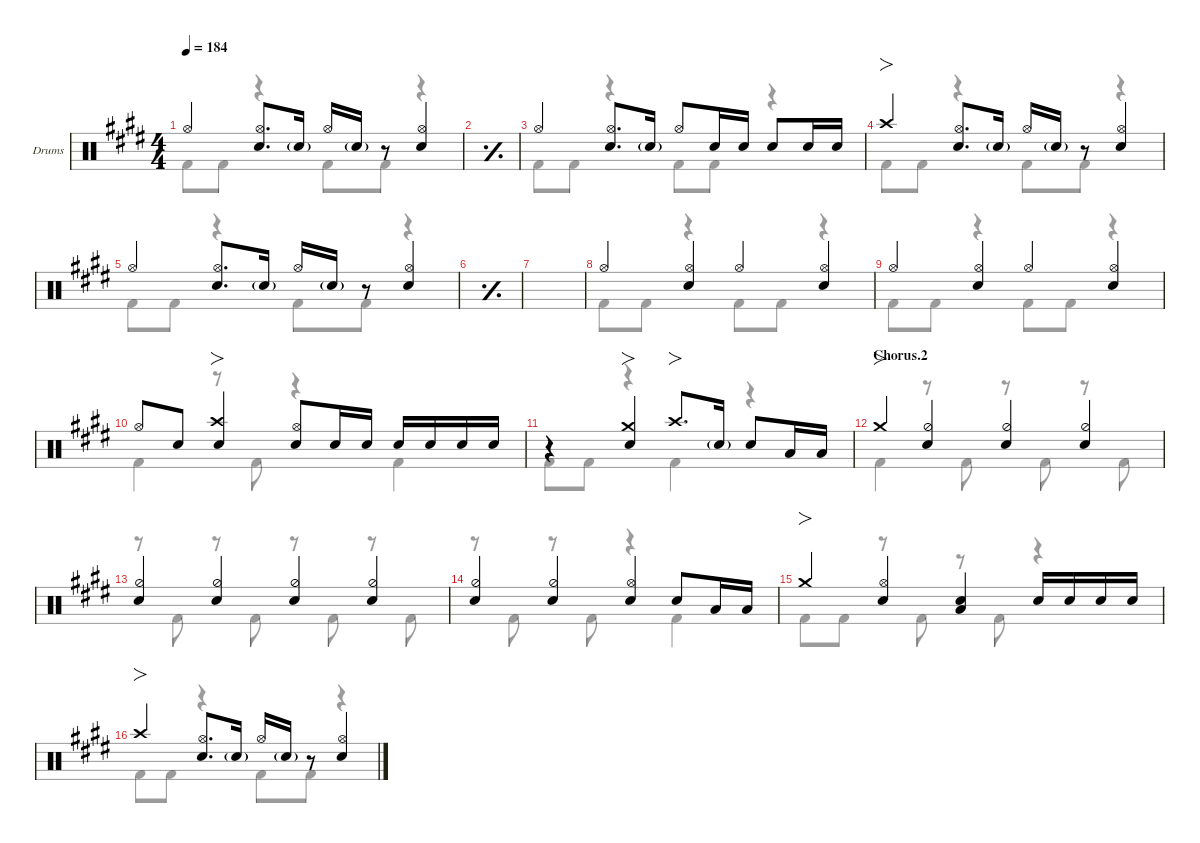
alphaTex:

\defaultSystemsLayout 4
\hideDynamics
\bracketExtendMode nobrackets
\firstSystemTrackNameOrientation horizontal
\track ("Drums" "Drums") {defaultSystemsLayout 4 instrument percussion}
\staff {score}
\articulation defaults
\voice
\ts (4 4)
\tempo 184
\clef neutral
\ks e "Hi-Hat (open)"{acc forcenatural}.4{dy f}
("Hi-Hat (open)"{acc forcenatural} "Snare (hit) 2"{acc forcenatural}).8{d} "Snare (hit) 2"{g acc forcenatural}.16{dy mf} "Hi-Hat (open)"{acc forcenatural}.16{dy f} "Snare (hit) 2"{g acc forcenatural}.16{dy mf beam split} r.8 ("Hi-Hat (open)"{acc forcenatural} "Snare (hit) 2"{acc forcenatural}).4{dy f} |
\simile simple
|
\simile none "Hi-Hat (open)"{acc forcenatural}.4
("Hi-Hat (open)"{acc forcenatural} "Snare (hit) 2"{acc forcenatural}).8{d} "Snare (hit) 2"{g acc forcenatural}.16{dy mf} "Hi-Hat (open)"{acc forcenatural}.8{dy f} "Snare (hit) 2"{acc forcenatural}.16 "Snare (hit) 2"{acc forcenatural}.16{dy mf beam split} "Snare (hit) 2"{acc forcenatural}.8 "Snare (hit) 2"{acc forcenatural}.16{dy f} "Snare (hit) 2"{acc forcenatural}.16{dy mf beam split} |
"Crash high (hit)"{acc forcenatural}.4{fo dy f} ("Hi-Hat (open)"{acc forcenatural} "Snare (hit) 2"{acc forcenatural}).8{d} "Snare (hit) 2"{g acc forcenatural}.16{dy mf} "Hi-Hat (open)"{acc forcenatural}.16{dy f} "Snare (hit) 2"{g acc forcenatural}.16{dy mf beam split} r.8 ("Hi-Hat (open)"{acc forcenatural} "Snare (hit) 2"{acc forcenatural}).4{dy f} |
"Hi-Hat (open)"{acc forcenatural}.4 ("Hi-Hat (open)"{acc forcenatural} "Snare (hit) 2"{acc forcenatural}).8{d} "Snare (hit) 2"{g acc forcenatural}.16{dy mf} "Hi-Hat (open)"{acc forcenatural}.16{dy f} "Snare (hit) 2"{g acc forcenatural}.16{dy mf beam split} r.8 ("Hi-Hat (open)"{acc forcenatural} "Snare (hit) 2"{acc forcenatural}).4{dy f} |
\simile simple
|
|
\simile none "Hi-Hat (open)"{acc forcenatural}.4
("Hi-Hat (open)"{acc forcenatural} "Snare (hit) 2"{acc forcenatural}).4 "Hi-Hat (open)"{acc forcenatural}.4 ("Hi-Hat (open)"{acc forcenatural} "Snare (hit) 2"{acc forcenatural}).4 |
"Hi-Hat (open)"{acc forcenatural}.4 ("Hi-Hat (open)"{acc forcenatural} "Snare (hit) 2"{acc forcenatural}).4 "Hi-Hat (open)"{acc forcenatural}.4 ("Hi-Hat (open)"{acc forcenatural} "Snare (hit) 2"{acc forcenatural}).4 |
"Hi-Hat (open)"{acc forcenatural}.8 "Snare (hit) 2"{acc forcenatural}.8 ("Snare (hit) 2"{acc forcenatural} "Crash high (hit)"{acc forcenatural}).4{fo} ("Snare (hit) 2"{acc forcenatural} "Hi-Hat (open)"{acc forcenatural}).8 "Snare (hit) 2"{acc forcenatural}.16 "Snare (hit) 2"{acc forcenatural}.16{dy mf beam split} "Snare (hit) 2"{acc forcenatural}.16{dy f} "Snare (hit) 2"{acc forcenatural}.16{dy mf} "Snare (hit) 2"{acc forcenatural}.16{dy f} "Snare (hit) 2"{acc forcenatural}.16{dy mf} |
r.4 ("Snare (hit) 2"{acc forcenatural} "Crash medium (hit)"{acc forcenatural}).4{fo dy f} "Crash high (hit)"{acc forcenatural}.8{fo d} "Snare (hit) 2"{g acc forcenatural}.16{dy mf beam split} "Snare (hit) 2"{acc forcenatural}.8{dy f} "Low Tom (hit)"{acc forcenatural}.16 "Low Tom (hit)"{acc forcenatural}.16 |
\section ("" "Chorus.2")
"Crash medium (hit)"{acc forcenatural}.4{fo} ("Snare (hit) 2"{acc forcenatural} "Hi-Hat (half)"{acc forcenatural}).4 ("Snare (hit) 2"{acc forcenatural} "Hi-Hat (half)"{acc forcenatural}).4 ("Snare (hit) 2"{acc forcenatural} "Hi-Hat (half)"{acc forcenatural}).4 |
("Snare (hit) 2"{acc forcenatural} "Hi-Hat (half)"{acc forcenatural}).4 ("Snare (hit) 2"{acc forcenatural} "Hi-Hat (half)"{acc forcenatural}).4 ("Snare (hit) 2"{acc forcenatural} "Hi-Hat (half)"{acc forcenatural}).4 ("Snare (hit) 2"{acc forcenatural} "Hi-Hat (half)"{acc forcenatural}).4 |
("Snare (hit) 2"{acc forcenatural} "Hi-Hat (half)"{acc forcenatural}).4 ("Snare (hit) 2"{acc forcenatural} "Hi-Hat (half)"{acc forcenatural}).4 ("Snare (hit) 2"{acc forcenatural} "Hi-Hat (open)"{acc forcenatural}).4 "Snare (hit) 2"{acc forcenatural}.8 "Low Tom (hit)"{acc forcenatural}.16 "Low Tom (hit)"{acc forcenatural}.16 |
"Crash medium (hit)"{acc forcenatural}.4{fo} ("Snare (hit) 2"{acc forcenatural} "Hi-Hat (open)"{acc forcenatural}).4 ("Snare (hit) 2"{acc forcenatural} "Low Tom (hit)"{acc forcenatural}).4 "Snare (hit) 2"{acc forcenatural}.16 "Snare (hit) 2"{acc forcenatural}.16{dy mf} "Snare (hit) 2"{acc forcenatural}.16{dy f} "Snare (hit) 2"{acc forcenatural}.16{dy mf} |
"Crash high (hit)"{acc forcenatural}.4{fo dy f} ("Hi-Hat (open)"{acc forcenatural} "Snare (hit) 2"{acc forcenatural}).8{d} "Snare (hit) 2"{g acc forcenatural}.16{dy mf} "Hi-Hat (open)"{acc forcenatural}.16{dy f} "Snare (hit) 2"{g acc forcenatural}.16{dy mf beam split} r.8 ("Hi-Hat (open)"{acc forcenatural} "Snare (hit) 2"{acc forcenatural}).4{dy f}
\voice
\clef neutral
\ottava regular
\simile none
\ks e "Kick (hit) 2"{acc forcenatural}.8{dy f} "Kick (hit) 2"{acc forcenatural}.8
r.4 "Kick (hit) 2"{acc forcenatural}.8 "Kick (hit) 2"{acc forcenatural}.8 r.4 |
\simile simple
|
\simile none "Kick (hit) 2"{acc forcenatural}.8 "Kick (hit) 2"{acc forcenatural}.8
r.4 "Kick (hit) 2"{acc forcenatural}.8 "Kick (hit) 2"{acc forcenatural}.8 r.4 |
"Kick (hit) 2"{acc forcenatural}.8 "Kick (hit) 2"{acc forcenatural}.8 r.4 "Kick (hit) 2"{acc forcenatural}.8 "Kick (hit) 2"{acc forcenatural}.8 r.4 |
"Kick (hit) 2"{acc forcenatural}.8 "Kick (hit) 2"{acc forcenatural}.8 r.4 "Kick (hit) 2"{acc forcenatural}.8 "Kick (hit) 2"{acc forcenatural}.8 r.4 |
\simile simple
|
|
\simile none "Kick (hit) 2"{acc forcenatural}.8 "Kick (hit) 2"{acc forcenatural}.8
r.4 "Kick (hit) 2"{acc forcenatural}.8 "Kick (hit) 2"{acc forcenatural}.8 r.4 |
"Kick (hit) 2"{acc forcenatural}.8 "Kick (hit) 2"{acc forcenatural}.8 r.4 "Kick (hit) 2"{acc forcenatural}.8 "Kick (hit) 2"{acc forcenatural}.8 r.4 |
"Kick (hit) 2"{acc forcenatural}.4 r.8 "Kick (hit) 2"{acc forcenatural}.8 r.4 "Kick (hit) 2"{acc forcenatural}.4 |
"Kick (hit) 2"{acc forcenatural}.8 "Kick (hit) 2"{acc forcenatural}.8 r.4 "Kick (hit) 2"{acc forcenatural}.4 r.4 |
"Kick (hit) 2"{acc forcenatural}.4 r.8 "Kick (hit) 2"{acc forcenatural}.8 r.8 "Kick (hit) 2"{acc forcenatural}.8 r.8 "Kick (hit) 2"{acc forcenatural}.8 |
r.8 "Kick (hit) 2"{acc forcenatural}.8 r.8 "Kick (hit) 2"{acc forcenatural}.8 r.8 "Kick (hit) 2"{acc forcenatural}.8 r.8 "Kick (hit) 2"{acc forcenatural}.8 |
r.8 "Kick (hit) 2"{acc forcenatural}.8 r.8 "Kick (hit) 2"{acc forcenatural}.8 r.4 "Kick (hit) 2"{acc forcenatural}.4 |
"Kick (hit) 2"{acc forcenatural}.8 "Kick (hit) 2"{acc forcenatural}.8 r.8 "Kick (hit) 2"{acc forcenatural}.8 r.8 "Kick (hit) 2"{acc forcenatural}.8 r.4 |
"Kick (hit) 2"{acc forcenatural}.8 "Kick (hit) 2"{acc forcenatural}.8 r.4 "Kick (hit) 2"{acc forcenatural}.8 "Kick (hit) 2"{acc forcenatural}.8 r.4
